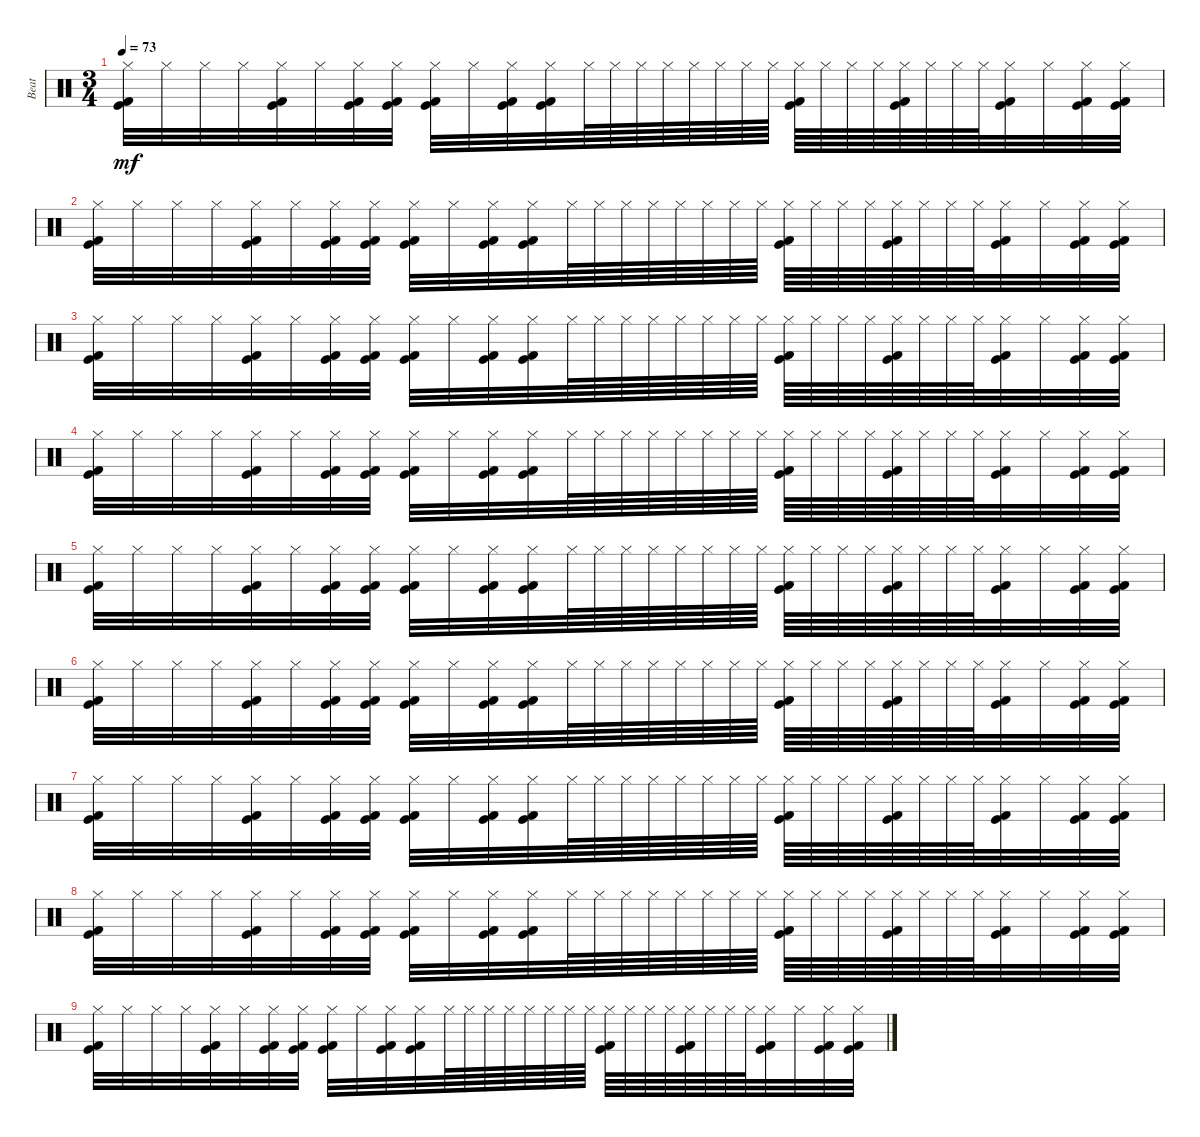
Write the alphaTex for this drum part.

\track ("Beat" "Beat") {instrument percussion}
\staff {score}
\articulation defaults
\ts (3 4)
\tempo 73
\clef neutral
\ks c
("Hi-Hat (closed)" "Kick (hit)" "Kick (hit) 2").32{dy mf} "Hi-Hat (closed)".32 "Hi-Hat (closed)".32 "Hi-Hat (closed)".32 ("Hi-Hat (closed)" "Kick (hit)" "Kick (hit) 2").32 "Hi-Hat (closed)".32 ("Hi-Hat (closed)" "Kick (hit)" "Kick (hit) 2").32 ("Hi-Hat (closed)" "Kick (hit)" "Kick (hit) 2").32 ("Hi-Hat (closed)" "Kick (hit)" "Kick (hit) 2").32 "Hi-Hat (closed)".32 ("Hi-Hat (closed)" "Kick (hit)" "Kick (hit) 2").32 ("Hi-Hat (closed)" "Kick (hit)" "Kick (hit) 2").32 "Hi-Hat (closed)".64 "Hi-Hat (closed)".64 "Hi-Hat (closed)".64 "Hi-Hat (closed)".64 "Hi-Hat (closed)".64 "Hi-Hat (closed)".64 "Hi-Hat (closed)".64 "Hi-Hat (closed)".64 ("Hi-Hat (closed)" "Kick (hit)" "Kick (hit) 2").64 "Hi-Hat (closed)".64 "Hi-Hat (closed)".64 "Hi-Hat (closed)".64 ("Hi-Hat (closed)" "Kick (hit)" "Kick (hit) 2").64 "Hi-Hat (closed)".64 "Hi-Hat (closed)".64 "Hi-Hat (closed)".64 ("Hi-Hat (closed)" "Kick (hit)" "Kick (hit) 2").32 "Hi-Hat (closed)".32 ("Hi-Hat (closed)" "Kick (hit)" "Kick (hit) 2").32 ("Hi-Hat (closed)" "Kick (hit)" "Kick (hit) 2").32 |
("Hi-Hat (closed)" "Kick (hit)" "Kick (hit) 2").32 "Hi-Hat (closed)".32 "Hi-Hat (closed)".32 "Hi-Hat (closed)".32 ("Hi-Hat (closed)" "Kick (hit)" "Kick (hit) 2").32 "Hi-Hat (closed)".32 ("Hi-Hat (closed)" "Kick (hit)" "Kick (hit) 2").32 ("Hi-Hat (closed)" "Kick (hit)" "Kick (hit) 2").32 ("Hi-Hat (closed)" "Kick (hit)" "Kick (hit) 2").32 "Hi-Hat (closed)".32 ("Hi-Hat (closed)" "Kick (hit)" "Kick (hit) 2").32 ("Hi-Hat (closed)" "Kick (hit)" "Kick (hit) 2").32 "Hi-Hat (closed)".64 "Hi-Hat (closed)".64 "Hi-Hat (closed)".64 "Hi-Hat (closed)".64 "Hi-Hat (closed)".64 "Hi-Hat (closed)".64 "Hi-Hat (closed)".64 "Hi-Hat (closed)".64 ("Hi-Hat (closed)" "Kick (hit)" "Kick (hit) 2").64 "Hi-Hat (closed)".64 "Hi-Hat (closed)".64 "Hi-Hat (closed)".64 ("Hi-Hat (closed)" "Kick (hit)" "Kick (hit) 2").64 "Hi-Hat (closed)".64 "Hi-Hat (closed)".64 "Hi-Hat (closed)".64 ("Hi-Hat (closed)" "Kick (hit)" "Kick (hit) 2").32 "Hi-Hat (closed)".32 ("Hi-Hat (closed)" "Kick (hit)" "Kick (hit) 2").32 ("Hi-Hat (closed)" "Kick (hit)" "Kick (hit) 2").32 |
("Hi-Hat (closed)" "Kick (hit)" "Kick (hit) 2").32 "Hi-Hat (closed)".32 "Hi-Hat (closed)".32 "Hi-Hat (closed)".32 ("Hi-Hat (closed)" "Kick (hit)" "Kick (hit) 2").32 "Hi-Hat (closed)".32 ("Hi-Hat (closed)" "Kick (hit)" "Kick (hit) 2").32 ("Hi-Hat (closed)" "Kick (hit)" "Kick (hit) 2").32 ("Hi-Hat (closed)" "Kick (hit)" "Kick (hit) 2").32 "Hi-Hat (closed)".32 ("Hi-Hat (closed)" "Kick (hit)" "Kick (hit) 2").32 ("Hi-Hat (closed)" "Kick (hit)" "Kick (hit) 2").32 "Hi-Hat (closed)".64 "Hi-Hat (closed)".64 "Hi-Hat (closed)".64 "Hi-Hat (closed)".64 "Hi-Hat (closed)".64 "Hi-Hat (closed)".64 "Hi-Hat (closed)".64 "Hi-Hat (closed)".64 ("Hi-Hat (closed)" "Kick (hit)" "Kick (hit) 2").64 "Hi-Hat (closed)".64 "Hi-Hat (closed)".64 "Hi-Hat (closed)".64 ("Hi-Hat (closed)" "Kick (hit)" "Kick (hit) 2").64 "Hi-Hat (closed)".64 "Hi-Hat (closed)".64 "Hi-Hat (closed)".64 ("Hi-Hat (closed)" "Kick (hit)" "Kick (hit) 2").32 "Hi-Hat (closed)".32 ("Hi-Hat (closed)" "Kick (hit)" "Kick (hit) 2").32 ("Hi-Hat (closed)" "Kick (hit)" "Kick (hit) 2").32 |
("Hi-Hat (closed)" "Kick (hit)" "Kick (hit) 2").32 "Hi-Hat (closed)".32 "Hi-Hat (closed)".32 "Hi-Hat (closed)".32 ("Hi-Hat (closed)" "Kick (hit)" "Kick (hit) 2").32 "Hi-Hat (closed)".32 ("Hi-Hat (closed)" "Kick (hit)" "Kick (hit) 2").32 ("Hi-Hat (closed)" "Kick (hit)" "Kick (hit) 2").32 ("Hi-Hat (closed)" "Kick (hit)" "Kick (hit) 2").32 "Hi-Hat (closed)".32 ("Hi-Hat (closed)" "Kick (hit)" "Kick (hit) 2").32 ("Hi-Hat (closed)" "Kick (hit)" "Kick (hit) 2").32 "Hi-Hat (closed)".64 "Hi-Hat (closed)".64 "Hi-Hat (closed)".64 "Hi-Hat (closed)".64 "Hi-Hat (closed)".64 "Hi-Hat (closed)".64 "Hi-Hat (closed)".64 "Hi-Hat (closed)".64 ("Hi-Hat (closed)" "Kick (hit)" "Kick (hit) 2").64 "Hi-Hat (closed)".64 "Hi-Hat (closed)".64 "Hi-Hat (closed)".64 ("Hi-Hat (closed)" "Kick (hit)" "Kick (hit) 2").64 "Hi-Hat (closed)".64 "Hi-Hat (closed)".64 "Hi-Hat (closed)".64 ("Hi-Hat (closed)" "Kick (hit)" "Kick (hit) 2").32 "Hi-Hat (closed)".32 ("Hi-Hat (closed)" "Kick (hit)" "Kick (hit) 2").32 ("Hi-Hat (closed)" "Kick (hit)" "Kick (hit) 2").32 |
("Hi-Hat (closed)" "Kick (hit)" "Kick (hit) 2").32 "Hi-Hat (closed)".32 "Hi-Hat (closed)".32 "Hi-Hat (closed)".32 ("Hi-Hat (closed)" "Kick (hit)" "Kick (hit) 2").32 "Hi-Hat (closed)".32 ("Hi-Hat (closed)" "Kick (hit)" "Kick (hit) 2").32 ("Hi-Hat (closed)" "Kick (hit)" "Kick (hit) 2").32 ("Hi-Hat (closed)" "Kick (hit)" "Kick (hit) 2").32 "Hi-Hat (closed)".32 ("Hi-Hat (closed)" "Kick (hit)" "Kick (hit) 2").32 ("Hi-Hat (closed)" "Kick (hit)" "Kick (hit) 2").32 "Hi-Hat (closed)".64 "Hi-Hat (closed)".64 "Hi-Hat (closed)".64 "Hi-Hat (closed)".64 "Hi-Hat (closed)".64 "Hi-Hat (closed)".64 "Hi-Hat (closed)".64 "Hi-Hat (closed)".64 ("Hi-Hat (closed)" "Kick (hit)" "Kick (hit) 2").64 "Hi-Hat (closed)".64 "Hi-Hat (closed)".64 "Hi-Hat (closed)".64 ("Hi-Hat (closed)" "Kick (hit)" "Kick (hit) 2").64 "Hi-Hat (closed)".64 "Hi-Hat (closed)".64 "Hi-Hat (closed)".64 ("Hi-Hat (closed)" "Kick (hit)" "Kick (hit) 2").32 "Hi-Hat (closed)".32 ("Hi-Hat (closed)" "Kick (hit)" "Kick (hit) 2").32 ("Hi-Hat (closed)" "Kick (hit)" "Kick (hit) 2").32 |
("Hi-Hat (closed)" "Kick (hit)" "Kick (hit) 2").32 "Hi-Hat (closed)".32 "Hi-Hat (closed)".32 "Hi-Hat (closed)".32 ("Hi-Hat (closed)" "Kick (hit)" "Kick (hit) 2").32 "Hi-Hat (closed)".32 ("Hi-Hat (closed)" "Kick (hit)" "Kick (hit) 2").32 ("Hi-Hat (closed)" "Kick (hit)" "Kick (hit) 2").32 ("Hi-Hat (closed)" "Kick (hit)" "Kick (hit) 2").32 "Hi-Hat (closed)".32 ("Hi-Hat (closed)" "Kick (hit)" "Kick (hit) 2").32 ("Hi-Hat (closed)" "Kick (hit)" "Kick (hit) 2").32 "Hi-Hat (closed)".64 "Hi-Hat (closed)".64 "Hi-Hat (closed)".64 "Hi-Hat (closed)".64 "Hi-Hat (closed)".64 "Hi-Hat (closed)".64 "Hi-Hat (closed)".64 "Hi-Hat (closed)".64 ("Hi-Hat (closed)" "Kick (hit)" "Kick (hit) 2").64 "Hi-Hat (closed)".64 "Hi-Hat (closed)".64 "Hi-Hat (closed)".64 ("Hi-Hat (closed)" "Kick (hit)" "Kick (hit) 2").64 "Hi-Hat (closed)".64 "Hi-Hat (closed)".64 "Hi-Hat (closed)".64 ("Hi-Hat (closed)" "Kick (hit)" "Kick (hit) 2").32 "Hi-Hat (closed)".32 ("Hi-Hat (closed)" "Kick (hit)" "Kick (hit) 2").32 ("Hi-Hat (closed)" "Kick (hit)" "Kick (hit) 2").32 |
("Hi-Hat (closed)" "Kick (hit)" "Kick (hit) 2").32 "Hi-Hat (closed)".32 "Hi-Hat (closed)".32 "Hi-Hat (closed)".32 ("Hi-Hat (closed)" "Kick (hit)" "Kick (hit) 2").32 "Hi-Hat (closed)".32 ("Hi-Hat (closed)" "Kick (hit)" "Kick (hit) 2").32 ("Hi-Hat (closed)" "Kick (hit)" "Kick (hit) 2").32 ("Hi-Hat (closed)" "Kick (hit)" "Kick (hit) 2").32 "Hi-Hat (closed)".32 ("Hi-Hat (closed)" "Kick (hit)" "Kick (hit) 2").32 ("Hi-Hat (closed)" "Kick (hit)" "Kick (hit) 2").32 "Hi-Hat (closed)".64 "Hi-Hat (closed)".64 "Hi-Hat (closed)".64 "Hi-Hat (closed)".64 "Hi-Hat (closed)".64 "Hi-Hat (closed)".64 "Hi-Hat (closed)".64 "Hi-Hat (closed)".64 ("Hi-Hat (closed)" "Kick (hit)" "Kick (hit) 2").64 "Hi-Hat (closed)".64 "Hi-Hat (closed)".64 "Hi-Hat (closed)".64 ("Hi-Hat (closed)" "Kick (hit)" "Kick (hit) 2").64 "Hi-Hat (closed)".64 "Hi-Hat (closed)".64 "Hi-Hat (closed)".64 ("Hi-Hat (closed)" "Kick (hit)" "Kick (hit) 2").32 "Hi-Hat (closed)".32 ("Hi-Hat (closed)" "Kick (hit)" "Kick (hit) 2").32 ("Hi-Hat (closed)" "Kick (hit)" "Kick (hit) 2").32 |
("Hi-Hat (closed)" "Kick (hit)" "Kick (hit) 2").32 "Hi-Hat (closed)".32 "Hi-Hat (closed)".32 "Hi-Hat (closed)".32 ("Hi-Hat (closed)" "Kick (hit)" "Kick (hit) 2").32 "Hi-Hat (closed)".32 ("Hi-Hat (closed)" "Kick (hit)" "Kick (hit) 2").32 ("Hi-Hat (closed)" "Kick (hit)" "Kick (hit) 2").32 ("Hi-Hat (closed)" "Kick (hit)" "Kick (hit) 2").32 "Hi-Hat (closed)".32 ("Hi-Hat (closed)" "Kick (hit)" "Kick (hit) 2").32 ("Hi-Hat (closed)" "Kick (hit)" "Kick (hit) 2").32 "Hi-Hat (closed)".64 "Hi-Hat (closed)".64 "Hi-Hat (closed)".64 "Hi-Hat (closed)".64 "Hi-Hat (closed)".64 "Hi-Hat (closed)".64 "Hi-Hat (closed)".64 "Hi-Hat (closed)".64 ("Hi-Hat (closed)" "Kick (hit)" "Kick (hit) 2").64 "Hi-Hat (closed)".64 "Hi-Hat (closed)".64 "Hi-Hat (closed)".64 ("Hi-Hat (closed)" "Kick (hit)" "Kick (hit) 2").64 "Hi-Hat (closed)".64 "Hi-Hat (closed)".64 "Hi-Hat (closed)".64 ("Hi-Hat (closed)" "Kick (hit)" "Kick (hit) 2").32 "Hi-Hat (closed)".32 ("Hi-Hat (closed)" "Kick (hit)" "Kick (hit) 2").32 ("Hi-Hat (closed)" "Kick (hit)" "Kick (hit) 2").32 |
("Hi-Hat (closed)" "Kick (hit)" "Kick (hit) 2").32 "Hi-Hat (closed)".32 "Hi-Hat (closed)".32 "Hi-Hat (closed)".32 ("Hi-Hat (closed)" "Kick (hit)" "Kick (hit) 2").32 "Hi-Hat (closed)".32 ("Hi-Hat (closed)" "Kick (hit)" "Kick (hit) 2").32 ("Hi-Hat (closed)" "Kick (hit)" "Kick (hit) 2").32 ("Hi-Hat (closed)" "Kick (hit)" "Kick (hit) 2").32 "Hi-Hat (closed)".32 ("Hi-Hat (closed)" "Kick (hit)" "Kick (hit) 2").32 ("Hi-Hat (closed)" "Kick (hit)" "Kick (hit) 2").32 "Hi-Hat (closed)".64 "Hi-Hat (closed)".64 "Hi-Hat (closed)".64 "Hi-Hat (closed)".64 "Hi-Hat (closed)".64 "Hi-Hat (closed)".64 "Hi-Hat (closed)".64 "Hi-Hat (closed)".64 ("Hi-Hat (closed)" "Kick (hit)" "Kick (hit) 2").64 "Hi-Hat (closed)".64 "Hi-Hat (closed)".64 "Hi-Hat (closed)".64 ("Hi-Hat (closed)" "Kick (hit)" "Kick (hit) 2").64 "Hi-Hat (closed)".64 "Hi-Hat (closed)".64 "Hi-Hat (closed)".64 ("Hi-Hat (closed)" "Kick (hit)" "Kick (hit) 2").32 "Hi-Hat (closed)".32 ("Hi-Hat (closed)" "Kick (hit)" "Kick (hit) 2").32 ("Hi-Hat (closed)" "Kick (hit)" "Kick (hit) 2").32
